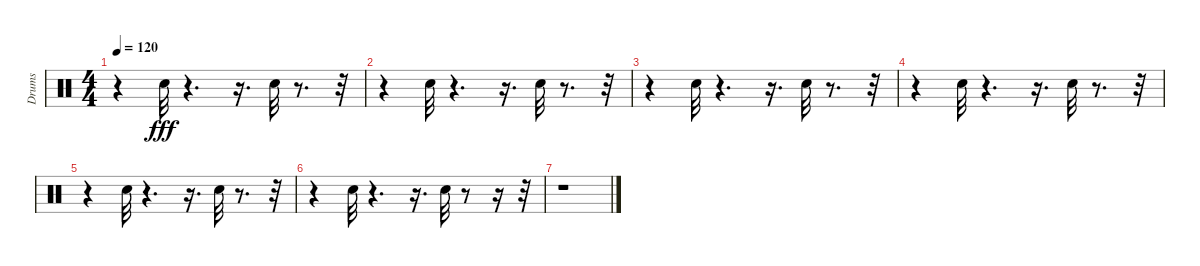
\track ("Drums" "Drums") {instrument percussion}
\staff {score}
\articulation defaults
\ts (4 4)
\tempo 120
\clef neutral
\ks c
r.4{dy fff} "Snare (hit) 2".32 r.4{d} r.16{d} "Snare (hit) 2".32 r.8{d} r.32 |
r.4 "Snare (hit) 2".32 r.4{d} r.16{d} "Snare (hit) 2".32 r.8{d} r.32 |
r.4 "Snare (hit) 2".32 r.4{d} r.16{d} "Snare (hit) 2".32 r.8{d} r.32 |
r.4 "Snare (hit) 2".32 r.4{d} r.16{d} "Snare (hit) 2".32 r.8{d} r.32 |
r.4 "Snare (hit) 2".32 r.4{d} r.16{d} "Snare (hit) 2".32 r.8{d} r.32 |
r.4 "Snare (hit) 2".32 r.4{d} r.16{d} "Snare (hit) 2".32 r.8 r.16 r.32 |
r.1
